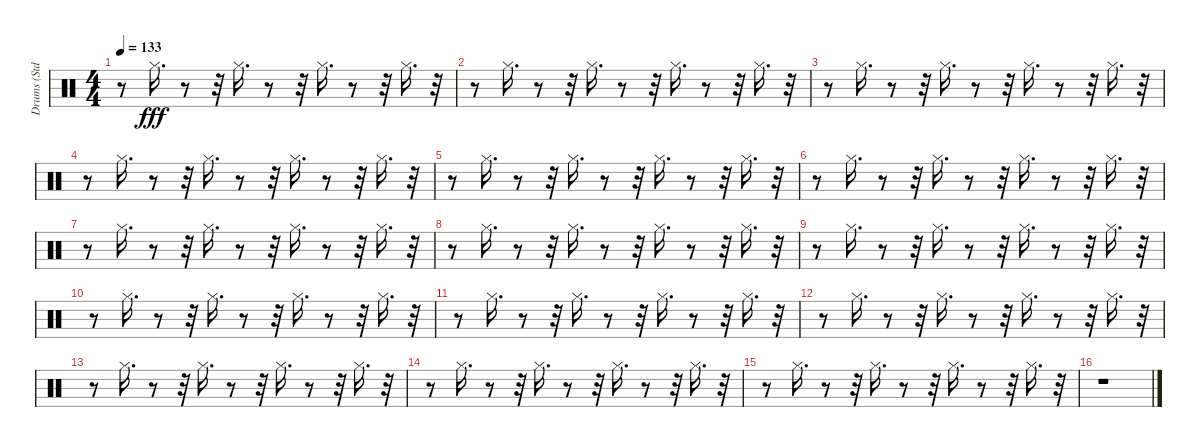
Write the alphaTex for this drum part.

\track ("Drums (Std.)" "Drums (Std") {instrument percussion}
\staff {score}
\articulation defaults
\ts (4 4)
\tempo 133
\clef neutral
\ks c
r.8{dy fff} "Hi-Hat (closed)".16{d} r.8 r.32 "Hi-Hat (closed)".16{d} r.8 r.32 "Hi-Hat (closed)".16{d} r.8 r.32 "Hi-Hat (closed)".16{d} r.32 |
r.8 "Hi-Hat (closed)".16{d} r.8 r.32 "Hi-Hat (closed)".16{d} r.8 r.32 "Hi-Hat (closed)".16{d} r.8 r.32 "Hi-Hat (closed)".16{d} r.32 |
r.8 "Hi-Hat (closed)".16{d} r.8 r.32 "Hi-Hat (closed)".16{d} r.8 r.32 "Hi-Hat (closed)".16{d} r.8 r.32 "Hi-Hat (closed)".16{d} r.32 |
r.8 "Hi-Hat (closed)".16{d} r.8 r.32 "Hi-Hat (closed)".16{d} r.8 r.32 "Hi-Hat (closed)".16{d} r.8 r.32 "Hi-Hat (closed)".16{d} r.32 |
r.8 "Hi-Hat (closed)".16{d} r.8 r.32 "Hi-Hat (closed)".16{d} r.8 r.32 "Hi-Hat (closed)".16{d} r.8 r.32 "Hi-Hat (closed)".16{d} r.32 |
r.8 "Hi-Hat (closed)".16{d} r.8 r.32 "Hi-Hat (closed)".16{d} r.8 r.32 "Hi-Hat (closed)".16{d} r.8 r.32 "Hi-Hat (closed)".16{d} r.32 |
r.8 "Hi-Hat (closed)".16{d} r.8 r.32 "Hi-Hat (closed)".16{d} r.8 r.32 "Hi-Hat (closed)".16{d} r.8 r.32 "Hi-Hat (closed)".16{d} r.32 |
r.8 "Hi-Hat (closed)".16{d} r.8 r.32 "Hi-Hat (closed)".16{d} r.8 r.32 "Hi-Hat (closed)".16{d} r.8 r.32 "Hi-Hat (closed)".16{d} r.32 |
r.8 "Hi-Hat (closed)".16{d} r.8 r.32 "Hi-Hat (closed)".16{d} r.8 r.32 "Hi-Hat (closed)".16{d} r.8 r.32 "Hi-Hat (closed)".16{d} r.32 |
r.8 "Hi-Hat (closed)".16{d} r.8 r.32 "Hi-Hat (closed)".16{d} r.8 r.32 "Hi-Hat (closed)".16{d} r.8 r.32 "Hi-Hat (closed)".16{d} r.32 |
r.8 "Hi-Hat (closed)".16{d} r.8 r.32 "Hi-Hat (closed)".16{d} r.8 r.32 "Hi-Hat (closed)".16{d} r.8 r.32 "Hi-Hat (closed)".16{d} r.32 |
r.8 "Hi-Hat (closed)".16{d} r.8 r.32 "Hi-Hat (closed)".16{d} r.8 r.32 "Hi-Hat (closed)".16{d} r.8 r.32 "Hi-Hat (closed)".16{d} r.32 |
r.8 "Hi-Hat (closed)".16{d} r.8 r.32 "Hi-Hat (closed)".16{d} r.8 r.32 "Hi-Hat (closed)".16{d} r.8 r.32 "Hi-Hat (closed)".16{d} r.32 |
r.8 "Hi-Hat (closed)".16{d} r.8 r.32 "Hi-Hat (closed)".16{d} r.8 r.32 "Hi-Hat (closed)".16{d} r.8 r.32 "Hi-Hat (closed)".16{d} r.32 |
r.8 "Hi-Hat (closed)".16{d} r.8 r.32 "Hi-Hat (closed)".16{d} r.8 r.32 "Hi-Hat (closed)".16{d} r.8 r.32 "Hi-Hat (closed)".16{d} r.32 |
r.1
